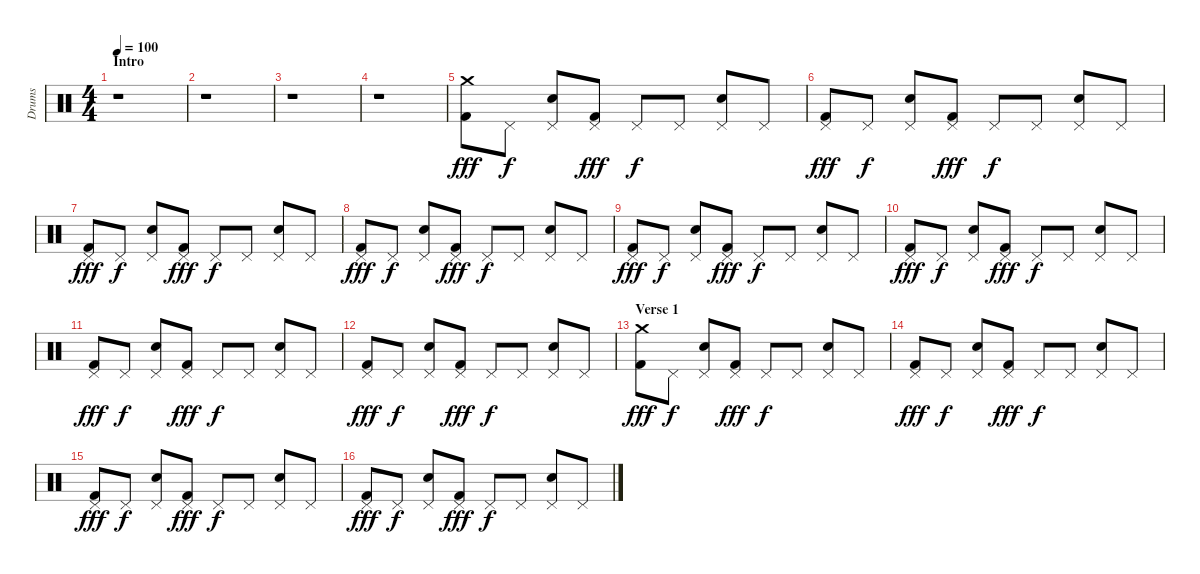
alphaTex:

\track ("Drums" "Drums") {instrument percussion}
\staff {score}
\articulation defaults
\ts (4 4)
\section ("" "Intro")
\tempo 100
\clef neutral
\ks c
r.1{dy fff} |
r.1 |
r.1 |
r.1 |
("Kick (hit) 2" "Crash medium (hit)").8 "Pedal Hi-Hat (hit)".8{dy f} ("Electric Snare (hit)" "Pedal Hi-Hat (hit)").8 ("Kick (hit) 2" "Pedal Hi-Hat (hit)").8{dy fff} "Pedal Hi-Hat (hit)".8{dy f} "Pedal Hi-Hat (hit)".8 ("Electric Snare (hit)" "Pedal Hi-Hat (hit)").8 "Pedal Hi-Hat (hit)".8 |
("Kick (hit) 2" "Pedal Hi-Hat (hit)").8{dy fff} "Pedal Hi-Hat (hit)".8{dy f} ("Electric Snare (hit)" "Pedal Hi-Hat (hit)").8 ("Kick (hit) 2" "Pedal Hi-Hat (hit)").8{dy fff} "Pedal Hi-Hat (hit)".8{dy f} "Pedal Hi-Hat (hit)".8 ("Electric Snare (hit)" "Pedal Hi-Hat (hit)").8 "Pedal Hi-Hat (hit)".8 |
("Kick (hit) 2" "Pedal Hi-Hat (hit)").8{dy fff} "Pedal Hi-Hat (hit)".8{dy f} ("Electric Snare (hit)" "Pedal Hi-Hat (hit)").8 ("Kick (hit) 2" "Pedal Hi-Hat (hit)").8{dy fff} "Pedal Hi-Hat (hit)".8{dy f} "Pedal Hi-Hat (hit)".8 ("Electric Snare (hit)" "Pedal Hi-Hat (hit)").8 "Pedal Hi-Hat (hit)".8 |
("Kick (hit) 2" "Pedal Hi-Hat (hit)").8{dy fff} "Pedal Hi-Hat (hit)".8{dy f} ("Electric Snare (hit)" "Pedal Hi-Hat (hit)").8 ("Kick (hit) 2" "Pedal Hi-Hat (hit)").8{dy fff} "Pedal Hi-Hat (hit)".8{dy f} "Pedal Hi-Hat (hit)".8 ("Electric Snare (hit)" "Pedal Hi-Hat (hit)").8 "Pedal Hi-Hat (hit)".8 |
("Kick (hit) 2" "Pedal Hi-Hat (hit)").8{dy fff} "Pedal Hi-Hat (hit)".8{dy f} ("Electric Snare (hit)" "Pedal Hi-Hat (hit)").8 ("Kick (hit) 2" "Pedal Hi-Hat (hit)").8{dy fff} "Pedal Hi-Hat (hit)".8{dy f} "Pedal Hi-Hat (hit)".8 ("Electric Snare (hit)" "Pedal Hi-Hat (hit)").8 "Pedal Hi-Hat (hit)".8 |
("Kick (hit) 2" "Pedal Hi-Hat (hit)").8{dy fff} "Pedal Hi-Hat (hit)".8{dy f} ("Electric Snare (hit)" "Pedal Hi-Hat (hit)").8 ("Kick (hit) 2" "Pedal Hi-Hat (hit)").8{dy fff} "Pedal Hi-Hat (hit)".8{dy f} "Pedal Hi-Hat (hit)".8 ("Electric Snare (hit)" "Pedal Hi-Hat (hit)").8 "Pedal Hi-Hat (hit)".8 |
("Kick (hit) 2" "Pedal Hi-Hat (hit)").8{dy fff} "Pedal Hi-Hat (hit)".8{dy f} ("Electric Snare (hit)" "Pedal Hi-Hat (hit)").8 ("Kick (hit) 2" "Pedal Hi-Hat (hit)").8{dy fff} "Pedal Hi-Hat (hit)".8{dy f} "Pedal Hi-Hat (hit)".8 ("Electric Snare (hit)" "Pedal Hi-Hat (hit)").8 "Pedal Hi-Hat (hit)".8 |
("Kick (hit) 2" "Pedal Hi-Hat (hit)").8{dy fff} "Pedal Hi-Hat (hit)".8{dy f} ("Electric Snare (hit)" "Pedal Hi-Hat (hit)").8 ("Kick (hit) 2" "Pedal Hi-Hat (hit)").8{dy fff} "Pedal Hi-Hat (hit)".8{dy f} "Pedal Hi-Hat (hit)".8 ("Electric Snare (hit)" "Pedal Hi-Hat (hit)").8 "Pedal Hi-Hat (hit)".8 |
\section ("" "Verse 1")
("Kick (hit) 2" "Crash medium (hit)").8{dy fff} "Pedal Hi-Hat (hit)".8{dy f} ("Electric Snare (hit)" "Pedal Hi-Hat (hit)").8 ("Kick (hit) 2" "Pedal Hi-Hat (hit)").8{dy fff} "Pedal Hi-Hat (hit)".8{dy f} "Pedal Hi-Hat (hit)".8 ("Electric Snare (hit)" "Pedal Hi-Hat (hit)").8 "Pedal Hi-Hat (hit)".8 |
("Kick (hit) 2" "Pedal Hi-Hat (hit)").8{dy fff} "Pedal Hi-Hat (hit)".8{dy f} ("Electric Snare (hit)" "Pedal Hi-Hat (hit)").8 ("Kick (hit) 2" "Pedal Hi-Hat (hit)").8{dy fff} "Pedal Hi-Hat (hit)".8{dy f} "Pedal Hi-Hat (hit)".8 ("Electric Snare (hit)" "Pedal Hi-Hat (hit)").8 "Pedal Hi-Hat (hit)".8 |
("Kick (hit) 2" "Pedal Hi-Hat (hit)").8{dy fff} "Pedal Hi-Hat (hit)".8{dy f} ("Electric Snare (hit)" "Pedal Hi-Hat (hit)").8 ("Kick (hit) 2" "Pedal Hi-Hat (hit)").8{dy fff} "Pedal Hi-Hat (hit)".8{dy f} "Pedal Hi-Hat (hit)".8 ("Electric Snare (hit)" "Pedal Hi-Hat (hit)").8 "Pedal Hi-Hat (hit)".8 |
("Kick (hit) 2" "Pedal Hi-Hat (hit)").8{dy fff} "Pedal Hi-Hat (hit)".8{dy f} ("Electric Snare (hit)" "Pedal Hi-Hat (hit)").8 ("Kick (hit) 2" "Pedal Hi-Hat (hit)").8{dy fff} "Pedal Hi-Hat (hit)".8{dy f} "Pedal Hi-Hat (hit)".8 ("Electric Snare (hit)" "Pedal Hi-Hat (hit)").8 "Pedal Hi-Hat (hit)".8
